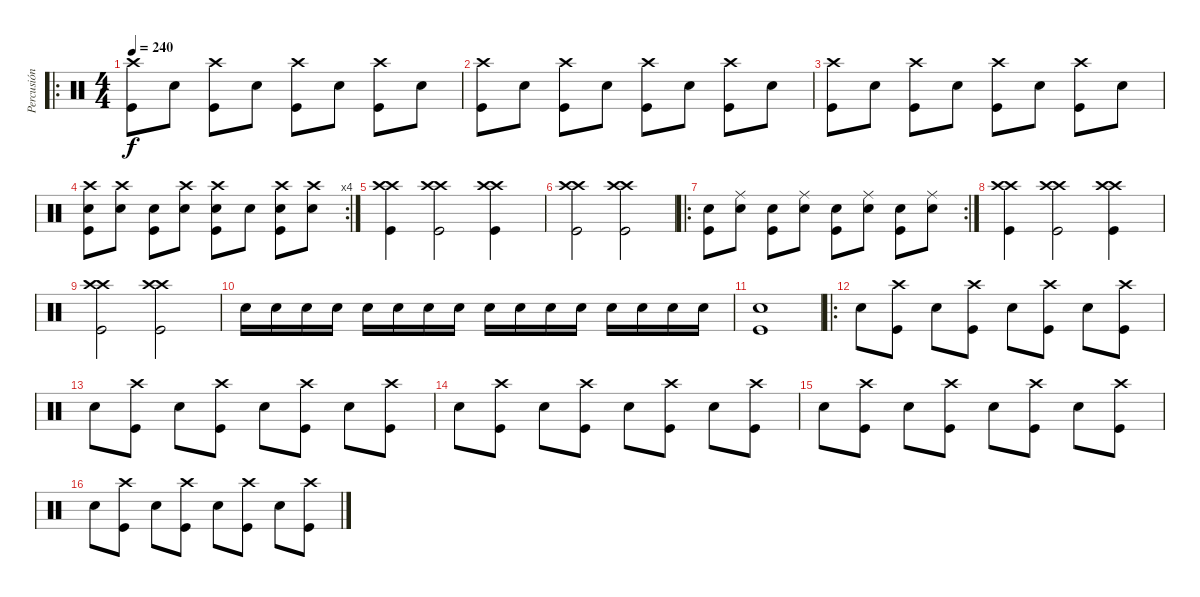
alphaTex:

\track ("Percusión" "Percusión") {instrument percussion}
\staff {score}
\articulation defaults
\ro
\ts (4 4)
\tempo 240
\clef neutral
\ks c
("Crash high (hit)" "Kick (hit)").8{dy f} "Electric Snare (hit)".8 ("Crash high (hit)" "Kick (hit)").8 "Electric Snare (hit)".8 ("Crash high (hit)" "Kick (hit)").8 "Electric Snare (hit)".8 ("Crash high (hit)" "Kick (hit)").8 "Electric Snare (hit)".8 |
("Crash high (hit)" "Kick (hit)").8 "Electric Snare (hit)".8 ("Crash high (hit)" "Kick (hit)").8 "Electric Snare (hit)".8 ("Crash high (hit)" "Kick (hit)").8 "Electric Snare (hit)".8 ("Crash high (hit)" "Kick (hit)").8 "Electric Snare (hit)".8 |
("Crash high (hit)" "Kick (hit)").8 "Electric Snare (hit)".8 ("Crash high (hit)" "Kick (hit)").8 "Electric Snare (hit)".8 ("Crash high (hit)" "Kick (hit)").8 "Electric Snare (hit)".8 ("Crash high (hit)" "Kick (hit)").8 "Electric Snare (hit)".8 |
\rc 4
("Crash high (hit)" "Electric Snare (hit)" "Kick (hit)").8 ("Crash high (hit)" "Electric Snare (hit)").8 ("Electric Snare (hit)" "Kick (hit)").8 ("Crash high (hit)" "Electric Snare (hit)").8 ("Crash high (hit)" "Electric Snare (hit)" "Kick (hit)").8 "Electric Snare (hit)".8 ("Crash high (hit)" "Electric Snare (hit)" "Kick (hit)").8 ("Crash high (hit)" "Electric Snare (hit)").8 |
("Crash high (hit)" "Crash high (hit)" "Kick (hit)").4 ("Crash high (hit)" "Crash high (hit)" "Kick (hit)").2 ("Crash high (hit)" "Crash high (hit)" "Kick (hit)").4 |
("Crash high (hit)" "Crash high (hit)" "Kick (hit)").2 ("Crash high (hit)" "Crash high (hit)" "Kick (hit)").2 |
\ro
\rc 2
("Electric Snare (hit)" "Kick (hit)").8 ("Ride (middle)" "Electric Snare (hit)").8 ("Electric Snare (hit)" "Kick (hit)").8 ("Ride (middle)" "Electric Snare (hit)").8 ("Electric Snare (hit)" "Kick (hit)").8 ("Ride (middle)" "Electric Snare (hit)").8 ("Electric Snare (hit)" "Kick (hit)").8 ("Ride (middle)" "Electric Snare (hit)").8 |
("Crash high (hit)" "Crash high (hit)" "Kick (hit)").4 ("Crash high (hit)" "Crash high (hit)" "Kick (hit)").2 ("Crash high (hit)" "Crash high (hit)" "Kick (hit)").4 |
("Crash high (hit)" "Crash high (hit)" "Kick (hit)").2 ("Crash high (hit)" "Crash high (hit)" "Kick (hit)").2 |
"Electric Snare (hit)".16 "Electric Snare (hit)".16 "Electric Snare (hit)".16 "Electric Snare (hit)".16 "Electric Snare (hit)".16 "Electric Snare (hit)".16 "Electric Snare (hit)".16 "Electric Snare (hit)".16 "Electric Snare (hit)".16 "Electric Snare (hit)".16 "Electric Snare (hit)".16 "Electric Snare (hit)".16 "Electric Snare (hit)".16 "Electric Snare (hit)".16 "Electric Snare (hit)".16 "Electric Snare (hit)".16 |
("Electric Snare (hit)" "Kick (hit)").1 |
\ro "Electric Snare (hit)".8
("Crash high (hit)" "Kick (hit)").8 "Electric Snare (hit)".8 ("Crash high (hit)" "Kick (hit)").8 "Electric Snare (hit)".8 ("Crash high (hit)" "Kick (hit)").8 "Electric Snare (hit)".8 ("Crash high (hit)" "Kick (hit)").8 |
"Electric Snare (hit)".8 ("Crash high (hit)" "Kick (hit)").8 "Electric Snare (hit)".8 ("Crash high (hit)" "Kick (hit)").8 "Electric Snare (hit)".8 ("Crash high (hit)" "Kick (hit)").8 "Electric Snare (hit)".8 ("Crash high (hit)" "Kick (hit)").8 |
"Electric Snare (hit)".8 ("Crash high (hit)" "Kick (hit)").8 "Electric Snare (hit)".8 ("Crash high (hit)" "Kick (hit)").8 "Electric Snare (hit)".8 ("Crash high (hit)" "Kick (hit)").8 "Electric Snare (hit)".8 ("Crash high (hit)" "Kick (hit)").8 |
"Electric Snare (hit)".8 ("Crash high (hit)" "Kick (hit)").8 "Electric Snare (hit)".8 ("Crash high (hit)" "Kick (hit)").8 "Electric Snare (hit)".8 ("Crash high (hit)" "Kick (hit)").8 "Electric Snare (hit)".8 ("Crash high (hit)" "Kick (hit)").8 |
"Electric Snare (hit)".8 ("Crash high (hit)" "Kick (hit)").8 "Electric Snare (hit)".8 ("Crash high (hit)" "Kick (hit)").8 "Electric Snare (hit)".8 ("Crash high (hit)" "Kick (hit)").8 "Electric Snare (hit)".8 ("Crash high (hit)" "Kick (hit)").8
